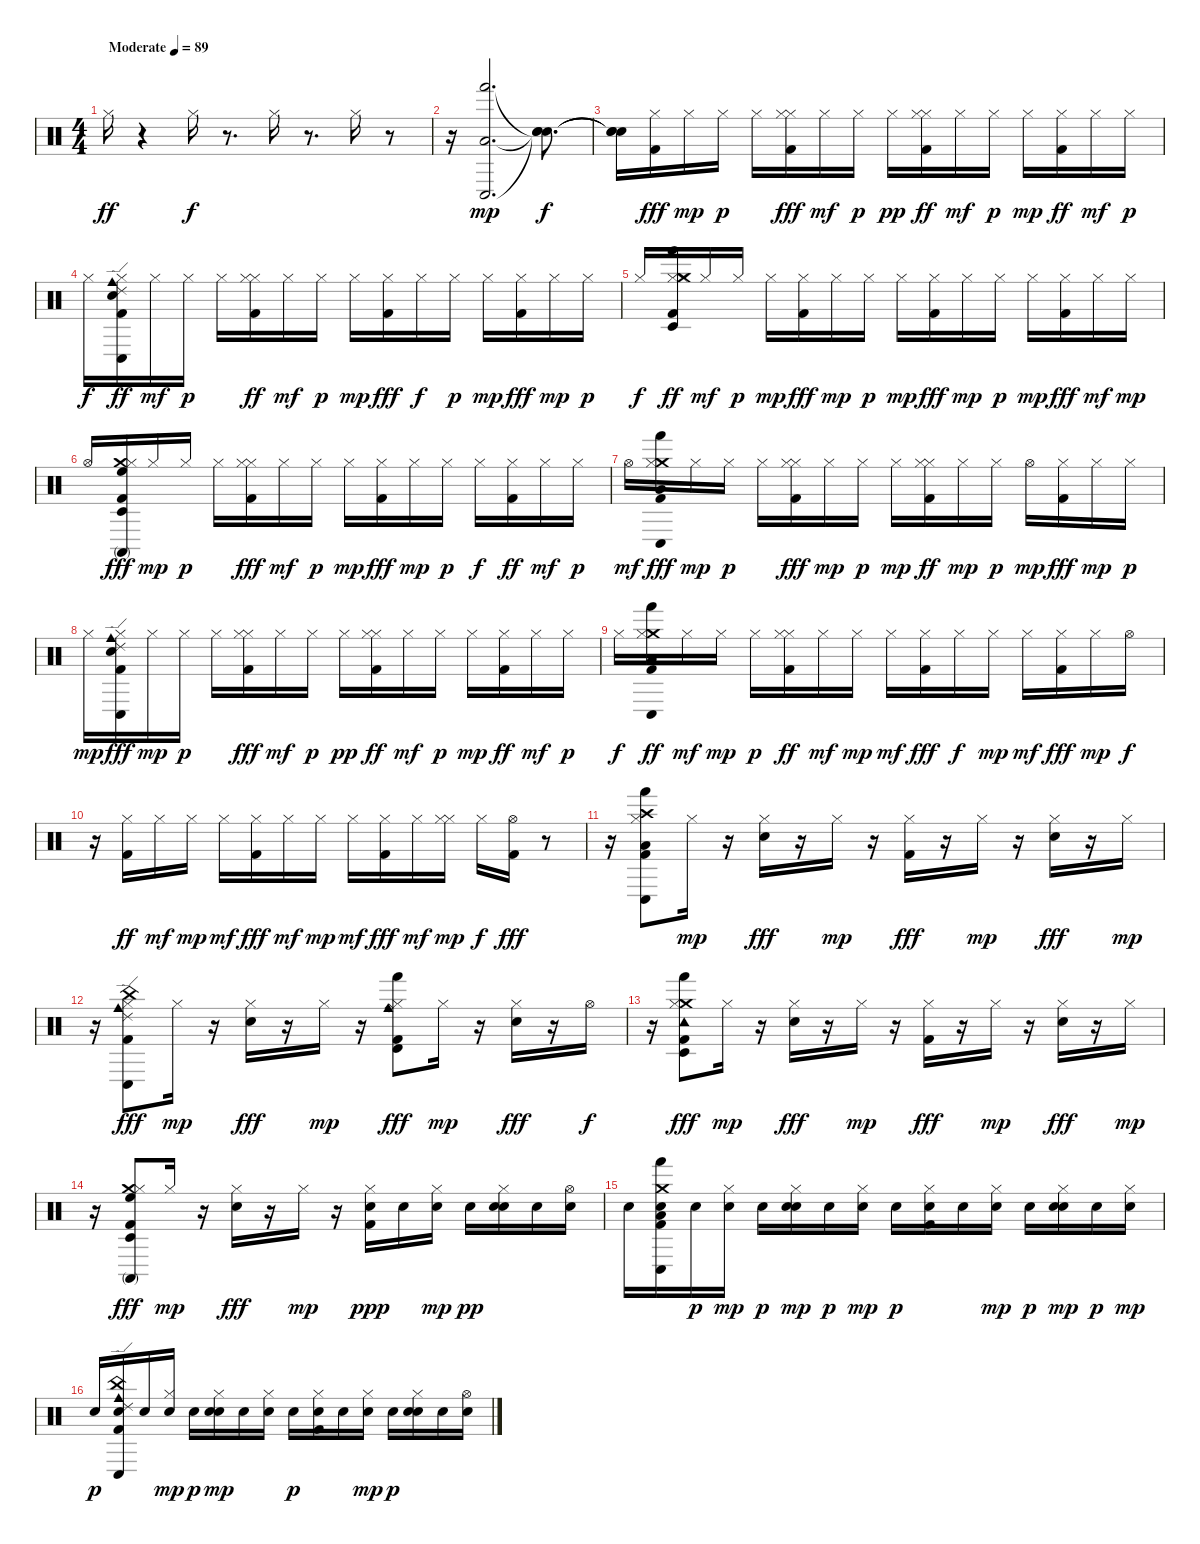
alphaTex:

\track "" {instrument percussion}
\staff {score}
\articulation defaults
\ts (4 4)
\tempo (89 "Moderate")
\clef neutral
\ks c "Hi-Hat (closed)".16{dy ff}
r.4 "Hi-Hat (closed)".16{dy f} r.8{d} "Hi-Hat (closed)".16{volume 11 balance 8} r.8{d} "Hi-Hat (closed)".16 r.8 |
r.16 ("Low Tom (hit)" "Hand (hit)" "Conga low (hit)").2{d dy mp volume 0} ("Snare (hit)"{t} "Snare (hit)"{t} "Snare (hit)"{t}).8{d dy f} |
("Snare (hit)"{t} "Snare (hit)"{t} "Snare (hit)"{t}).16 ("Kick (hit) 2" "Hi-Hat (closed)").16{dy fff volume 11} "Hi-Hat (closed)".16{dy mp} "Hi-Hat (closed)".16{dy p} "Hi-Hat (closed)".16 ("Hi-Hat (closed)" "Kick (hit) 2" "Hi-Hat (closed)").16{dy fff} "Hi-Hat (closed)".16{dy mf} "Hi-Hat (closed)".16{dy p} "Hi-Hat (closed)".16{dy pp} ("Hi-Hat (closed)" "Kick (hit) 2" "Hi-Hat (closed)").16{dy ff} "Hi-Hat (closed)".16{dy mf} "Hi-Hat (closed)".16{dy p} "Hi-Hat (closed)".16{dy mp} ("Kick (hit) 2" "Hi-Hat (closed)").16{dy ff} "Hi-Hat (closed)".16{dy mf} "Hi-Hat (closed)".16{dy p} |
"Hi-Hat (closed)".16{dy f} ("Electric Snare (hit)" "Cowbell medium (hit)" "Ride (edge) 2" "Conga low (hit)" "Kick (hit) 2" "Hi-Hat (closed)").16{dy ff} "Hi-Hat (closed)".16{dy mf} "Hi-Hat (closed)".16{dy p} "Hi-Hat (closed)".16 ("Hi-Hat (closed)" "Kick (hit) 2" "Hi-Hat (closed)").16{dy ff} "Hi-Hat (closed)".16{dy mf} "Hi-Hat (closed)".16{dy p} "Hi-Hat (closed)".16{dy mp} ("Kick (hit) 2" "Hi-Hat (closed)").16{dy fff} "Hi-Hat (closed)".16{dy f} "Hi-Hat (closed)".16{dy p} "Hi-Hat (closed)".16{dy mp} ("Kick (hit) 2" "Hi-Hat (closed)").16{dy fff} "Hi-Hat (closed)".16{dy mp} "Hi-Hat (closed)".16{dy p} |
"Hi-Hat (closed)".16{dy f} ("Hi-Hat (closed)" "Crash medium (hit)" "Hand (hit)" "Timbale low (hit)" "Kick (hit) 2" "Hi-Hat (closed)").16{dy ff} "Hi-Hat (closed)".16{dy mf} "Hi-Hat (closed)".16{dy p} "Hi-Hat (closed)".16{dy mp} ("Kick (hit) 2" "Hi-Hat (closed)").16{dy fff} "Hi-Hat (closed)".16{dy mp} "Hi-Hat (closed)".16{dy p} "Hi-Hat (closed)".16{dy mp} ("Kick (hit) 2" "Hi-Hat (closed)").16{dy fff} "Hi-Hat (closed)".16{dy mp} "Hi-Hat (closed)".16{dy p} "Hi-Hat (closed)".16{dy mp} ("Kick (hit) 2" "Hi-Hat (closed)").16{dy fff} "Hi-Hat (closed)".16{dy mf} "Hi-Hat (closed)".16{dy mp} |
"Hi-Hat (open)".16 ("High Floor Tom (hit)" "Crash medium (hit)" "Conga high (mute)" "Timbale low (hit)" "Kick (hit) 2" "Hi-Hat (closed)").16{dy fff} "Hi-Hat (closed)".16{dy mp} "Hi-Hat (closed)".16{dy p} "Hi-Hat (closed)".16 ("Hi-Hat (closed)" "Kick (hit) 2" "Hi-Hat (closed)").16{dy fff} "Hi-Hat (closed)".16{dy mf} "Hi-Hat (closed)".16{dy p} "Hi-Hat (closed)".16{dy mp} ("Kick (hit) 2" "Hi-Hat (closed)").16{dy fff} "Hi-Hat (closed)".16{dy mp} "Hi-Hat (closed)".16{dy p} "Hi-Hat (closed)".16{dy f} ("Kick (hit) 2" "Hi-Hat (closed)").16{dy ff} "Hi-Hat (closed)".16{dy mf} "Hi-Hat (closed)".16{dy p} |
"Hi-Hat (open)".16{dy mf} ("Low Tom (hit)" "Crash medium (hit)" "Hand (hit)" "Conga low (hit)" "Kick (hit) 2" "Hi-Hat (closed)").16{dy fff} "Hi-Hat (closed)".16{dy mp} "Hi-Hat (closed)".16{dy p} "Hi-Hat (closed)".16 ("Hi-Hat (closed)" "Kick (hit) 2" "Hi-Hat (closed)").16{dy fff} "Hi-Hat (closed)".16{dy mp} "Hi-Hat (closed)".16{dy p} "Hi-Hat (closed)".16{dy mp} ("Hi-Hat (closed)" "Kick (hit) 2" "Hi-Hat (closed)").16{dy ff} "Hi-Hat (closed)".16{dy mp} "Hi-Hat (closed)".16{dy p} "Hi-Hat (open)".16{dy mp} ("Kick (hit) 2" "Hi-Hat (closed)").16{dy fff} "Hi-Hat (closed)".16{dy mp} "Hi-Hat (closed)".16{dy p} |
"Hi-Hat (closed)".16{dy mp} ("Hi-Hat (closed)" "Electric Snare (hit)" "Cowbell medium (hit)" "Ride (edge) 2" "Conga low (hit)" "Kick (hit) 2").16{dy fff} "Hi-Hat (closed)".16{dy mp} "Hi-Hat (closed)".16{dy p} "Hi-Hat (closed)".16 ("Hi-Hat (closed)" "Kick (hit) 2" "Hi-Hat (closed)").16{dy fff} "Hi-Hat (closed)".16{dy mf} "Hi-Hat (closed)".16{dy p} "Hi-Hat (closed)".16{dy pp} ("Hi-Hat (closed)" "Kick (hit) 2" "Hi-Hat (closed)").16{dy ff} "Hi-Hat (closed)".16{dy mf} "Hi-Hat (closed)".16{dy p} "Hi-Hat (closed)".16{dy mp} ("Kick (hit) 2" "Hi-Hat (closed)").16{dy ff} "Hi-Hat (closed)".16{dy mf} "Hi-Hat (closed)".16{dy p} |
"Hi-Hat (closed)".16{dy f} ("Low Tom (hit)" "Crash medium (hit)" "Hand (hit)" "Conga low (hit)" "Kick (hit) 2" "Hi-Hat (closed)").16{dy ff} "Hi-Hat (closed)".16{dy mf} "Hi-Hat (closed)".16{dy mp} "Hi-Hat (closed)".16{dy p} ("Hi-Hat (closed)" "Kick (hit) 2" "Hi-Hat (closed)").16{dy ff} "Hi-Hat (closed)".16{dy mf} "Hi-Hat (closed)".16{dy mp} "Hi-Hat (closed)".16{dy mf} ("Kick (hit) 2" "Hi-Hat (closed)").16{dy fff} "Hi-Hat (closed)".16{dy f} "Hi-Hat (closed)".16{dy mp} "Hi-Hat (closed)".16{dy mf} ("Kick (hit) 2" "Hi-Hat (closed)").16{dy fff} "Hi-Hat (closed)".16{dy mp} "Hi-Hat (open)".16{dy f} |
r.16 ("Kick (hit) 2" "Hi-Hat (closed)").16{dy ff} "Hi-Hat (closed)".16{dy mf} "Hi-Hat (closed)".16{dy mp} "Hi-Hat (closed)".16{dy mf} ("Kick (hit) 2" "Hi-Hat (closed)").16{dy fff} "Hi-Hat (closed)".16{dy mf} "Hi-Hat (closed)".16{dy mp} "Hi-Hat (closed)".16{dy mf} ("Kick (hit) 2" "Hi-Hat (closed)").16{dy fff} "Hi-Hat (closed)".16{dy mf} ("Hi-Hat (closed)" "Hi-Hat (closed)").16{dy mp} "Hi-Hat (closed)".16{dy f} ("Kick (hit) 2" "Hi-Hat (open)").16{dy fff} r.8 |
r.16 ("Low Tom (hit)" "Hand (hit)" "Conga low (hit)" "Kick (hit) 2" "Hi-Hat (closed)" "Crash high (hit)").8 "Hi-Hat (closed)".16{dy mp} r.16 ("Snare (hit) 2" "Hi-Hat (closed)").16{dy fff} r.16 "Hi-Hat (closed)".16{dy mp} r.16 ("Kick (hit) 2" "Hi-Hat (closed)").16{dy fff} r.16 "Hi-Hat (closed)".16{dy mp} r.16 ("Snare (hit) 2" "Hi-Hat (closed)").16{dy fff} r.16 "Hi-Hat (closed)".16{dy mp} |
r.16 ("China (hit)" "Cowbell medium (hit)" "Ride (edge) 2" "Conga low (hit)" "Kick (hit) 2" "Hi-Hat (closed)").8{dy fff} "Hi-Hat (closed)".16{dy mp} r.16 ("Snare (hit) 2" "Hi-Hat (closed)").16{dy fff} r.16 "Hi-Hat (closed)".16{dy mp} r.16 ("Ride (bell)" "Cowbell medium (hit)" "Hand (hit)" "Timbale high (hit)" "Kick (hit) 2" "Hi-Hat (closed)").8{dy fff} "Hi-Hat (closed)".16{dy mp} r.16 ("Snare (hit) 2" "Hi-Hat (closed)").16{dy fff} r.16 "Hi-Hat (open)".16{dy f} |
r.16 ("Tambourine (hit)" "Crash medium (hit)" "Hand (hit)" "Timbale low (hit)" "Kick (hit) 2" "Hi-Hat (closed)").8{dy fff} "Hi-Hat (closed)".16{dy mp} r.16 ("Snare (hit) 2" "Hi-Hat (closed)").16{dy fff} r.16 "Hi-Hat (closed)".16{dy mp} r.16 ("Kick (hit) 2" "Hi-Hat (closed)").16{dy fff} r.16 "Hi-Hat (closed)".16{dy mp} r.16 ("Snare (hit) 2" "Hi-Hat (closed)").16{dy fff} r.16 "Hi-Hat (closed)".16{dy mp} |
r.16 ("High Floor Tom (hit)" "Crash medium (hit)" "Conga high (mute)" "Timbale low (hit)" "Kick (hit) 2" "Hi-Hat (closed)").8{dy fff} "Hi-Hat (closed)".16{dy mp} r.16 ("Snare (hit) 2" "Hi-Hat (closed)").16{dy fff} r.16 "Hi-Hat (closed)".16{dy mp} r.16 ("Kick (hit) 2" "Electric Snare (hit)" "Hi-Hat (closed)").16{dy ppp} "Electric Snare (hit)".16 ("Electric Snare (hit)" "Hi-Hat (closed)").16{dy mp} "Electric Snare (hit)".16{dy pp} ("Snare (hit) 2" "Electric Snare (hit)" "Hi-Hat (closed)").16 "Electric Snare (hit)".16 ("Electric Snare (hit)" "Hi-Hat (open)").16 |
"Electric Snare (hit)".16 ("Low Tom (hit)" "Crash medium (hit)" "Hand (hit)" "Conga low (hit)" "Kick (hit) 2" "Electric Snare (hit)").16 "Electric Snare (hit)".16{dy p} ("Electric Snare (hit)" "Hi-Hat (closed)").16{dy mp} "Electric Snare (hit)".16{dy p} ("Snare (hit) 2" "Electric Snare (hit)" "Hi-Hat (closed)").16{dy mp} "Electric Snare (hit)".16{dy p} ("Electric Snare (hit)" "Hi-Hat (closed)").16{dy mp} "Electric Snare (hit)".16{dy p} ("Kick (hit) 2" "Electric Snare (hit)" "Hi-Hat (closed)").16 "Electric Snare (hit)".16 ("Electric Snare (hit)" "Hi-Hat (closed)").16{dy mp} "Electric Snare (hit)".16{dy p} ("Snare (hit) 2" "Electric Snare (hit)" "Hi-Hat (closed)").16{dy mp} "Electric Snare (hit)".16{dy p} ("Electric Snare (hit)" "Hi-Hat (closed)").16{dy mp} |
"Electric Snare (hit)".16{dy p} ("China (hit)" "Cowbell medium (hit)" "Ride (edge) 2" "Conga low (hit)" "Kick (hit) 2" "Electric Snare (hit)").16 "Electric Snare (hit)".16 ("Electric Snare (hit)" "Hi-Hat (closed)").16{dy mp} "Electric Snare (hit)".16{dy p} ("Snare (hit) 2" "Electric Snare (hit)" "Hi-Hat (closed)").16{dy mp} "Electric Snare (hit)".16 ("Electric Snare (hit)" "Hi-Hat (closed)").16 "Electric Snare (hit)".16{dy p} ("Kick (hit) 2" "Electric Snare (hit)" "Hi-Hat (closed)").16 "Electric Snare (hit)".16 ("Electric Snare (hit)" "Hi-Hat (closed)").16{dy mp} "Electric Snare (hit)".16{dy p} ("Snare (hit) 2" "Electric Snare (hit)" "Hi-Hat (closed)").16 "Electric Snare (hit)".16 ("Electric Snare (hit)" "Hi-Hat (open)").16
